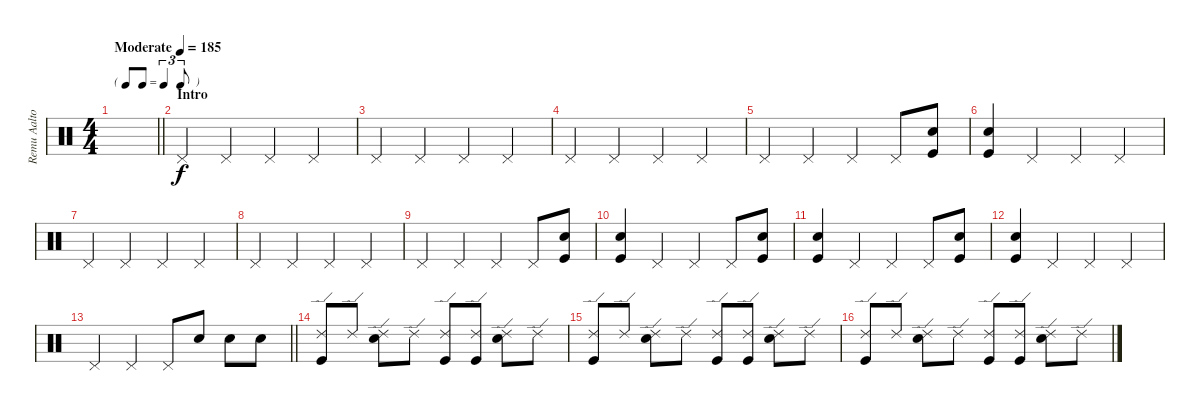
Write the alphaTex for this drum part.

\track ("Remu Aaltonen" "Remu Aalto") {instrument percussion}
\staff {score}
\articulation defaults
\ts (4 4)
\tf triplet8th
\tempo (185 "Moderate")
\clef neutral
\barLineRight lightlight
\ks c
|
\section ("" "Intro")
"Pedal Hi-Hat (hit)".4 "Pedal Hi-Hat (hit)".4 "Pedal Hi-Hat (hit)".4 "Pedal Hi-Hat (hit)".4 |
"Pedal Hi-Hat (hit)".4 "Pedal Hi-Hat (hit)".4 "Pedal Hi-Hat (hit)".4 "Pedal Hi-Hat (hit)".4 |
"Pedal Hi-Hat (hit)".4 "Pedal Hi-Hat (hit)".4 "Pedal Hi-Hat (hit)".4 "Pedal Hi-Hat (hit)".4 |
"Pedal Hi-Hat (hit)".4 "Pedal Hi-Hat (hit)".4 "Pedal Hi-Hat (hit)".4 "Pedal Hi-Hat (hit)".8 ("Snare (hit) 2" "Kick (hit)").8 |
("Snare (hit) 2" "Kick (hit)").4 "Pedal Hi-Hat (hit)".4 "Pedal Hi-Hat (hit)".4 "Pedal Hi-Hat (hit)".4 |
"Pedal Hi-Hat (hit)".4 "Pedal Hi-Hat (hit)".4 "Pedal Hi-Hat (hit)".4 "Pedal Hi-Hat (hit)".4 |
"Pedal Hi-Hat (hit)".4 "Pedal Hi-Hat (hit)".4 "Pedal Hi-Hat (hit)".4 "Pedal Hi-Hat (hit)".4 |
"Pedal Hi-Hat (hit)".4 "Pedal Hi-Hat (hit)".4 "Pedal Hi-Hat (hit)".4 "Pedal Hi-Hat (hit)".8 ("Snare (hit) 2" "Kick (hit)").8 |
("Snare (hit) 2" "Kick (hit)").4 "Pedal Hi-Hat (hit)".4 "Pedal Hi-Hat (hit)".4 "Pedal Hi-Hat (hit)".8 ("Snare (hit) 2" "Kick (hit)").8 |
("Snare (hit) 2" "Kick (hit)").4 "Pedal Hi-Hat (hit)".4 "Pedal Hi-Hat (hit)".4 "Pedal Hi-Hat (hit)".8 ("Snare (hit) 2" "Kick (hit)").8 |
("Snare (hit) 2" "Kick (hit)").4 "Pedal Hi-Hat (hit)".4 "Pedal Hi-Hat (hit)".4 "Pedal Hi-Hat (hit)".4 |
\barLineRight lightlight "Pedal Hi-Hat (hit)".4 "Pedal Hi-Hat (hit)".4 "Pedal Hi-Hat (hit)".8 "Snare (hit) 2".8 "Snare (hit) 2".8 "Snare (hit) 2".8
|
\section ("" "")
("Ride (edge) 2" "Kick (hit)").8 "Ride (edge) 2".8 ("Ride (edge) 2" "Snare (hit) 2").8 "Ride (edge) 2".8 ("Ride (edge) 2" "Kick (hit)").8 ("Ride (edge) 2" "Kick (hit)").8 ("Ride (edge) 2" "Snare (hit) 2").8 "Ride (edge) 2".8 |
("Ride (edge) 2" "Kick (hit)").8 "Ride (edge) 2".8 ("Ride (edge) 2" "Snare (hit) 2").8 "Ride (edge) 2".8 ("Ride (edge) 2" "Kick (hit)").8 ("Ride (edge) 2" "Kick (hit)").8 ("Ride (edge) 2" "Snare (hit) 2").8 "Ride (edge) 2".8 |
("Ride (edge) 2" "Kick (hit)").8 "Ride (edge) 2".8 ("Ride (edge) 2" "Snare (hit) 2").8 "Ride (edge) 2".8 ("Ride (edge) 2" "Kick (hit)").8 ("Ride (edge) 2" "Kick (hit)").8 ("Ride (edge) 2" "Snare (hit) 2").8 "Ride (edge) 2".8
